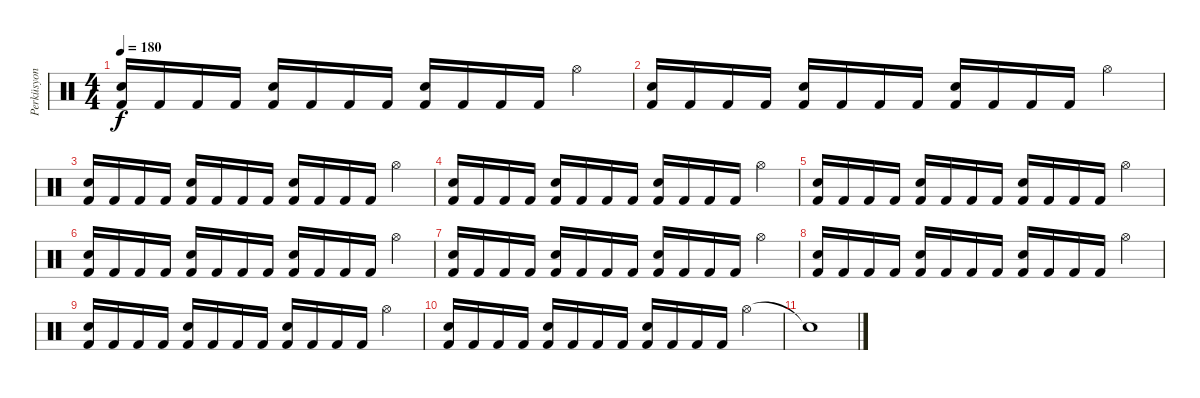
\track ("Perküsyon" "Perküsyon") {instrument percussion}
\staff {score}
\articulation defaults
\ts (4 4)
\tempo 180
\clef neutral
\ks c
("Kick (hit) 2" "Electric Snare (hit)").16{dy f} "Kick (hit) 2".16 "Kick (hit) 2".16 "Kick (hit) 2".16 ("Kick (hit) 2" "Electric Snare (hit)").16 "Kick (hit) 2".16 "Kick (hit) 2".16 "Kick (hit) 2".16 ("Kick (hit) 2" "Electric Snare (hit)").16 "Kick (hit) 2".16 "Kick (hit) 2".16 "Kick (hit) 2".16 "Hi-Hat (open)".4 |
("Kick (hit) 2" "Electric Snare (hit)").16 "Kick (hit) 2".16 "Kick (hit) 2".16 "Kick (hit) 2".16 ("Kick (hit) 2" "Electric Snare (hit)").16 "Kick (hit) 2".16 "Kick (hit) 2".16 "Kick (hit) 2".16 ("Kick (hit) 2" "Electric Snare (hit)").16 "Kick (hit) 2".16 "Kick (hit) 2".16 "Kick (hit) 2".16 "Hi-Hat (open)".4 |
("Kick (hit) 2" "Electric Snare (hit)").16 "Kick (hit) 2".16 "Kick (hit) 2".16 "Kick (hit) 2".16 ("Kick (hit) 2" "Electric Snare (hit)").16 "Kick (hit) 2".16 "Kick (hit) 2".16 "Kick (hit) 2".16 ("Kick (hit) 2" "Electric Snare (hit)").16 "Kick (hit) 2".16 "Kick (hit) 2".16 "Kick (hit) 2".16 "Hi-Hat (open)".4 |
("Kick (hit) 2" "Electric Snare (hit)").16 "Kick (hit) 2".16 "Kick (hit) 2".16 "Kick (hit) 2".16 ("Kick (hit) 2" "Electric Snare (hit)").16 "Kick (hit) 2".16 "Kick (hit) 2".16 "Kick (hit) 2".16 ("Kick (hit) 2" "Electric Snare (hit)").16 "Kick (hit) 2".16 "Kick (hit) 2".16 "Kick (hit) 2".16 "Hi-Hat (open)".4 |
("Kick (hit) 2" "Electric Snare (hit)").16 "Kick (hit) 2".16 "Kick (hit) 2".16 "Kick (hit) 2".16 ("Kick (hit) 2" "Electric Snare (hit)").16 "Kick (hit) 2".16 "Kick (hit) 2".16 "Kick (hit) 2".16 ("Kick (hit) 2" "Electric Snare (hit)").16 "Kick (hit) 2".16 "Kick (hit) 2".16 "Kick (hit) 2".16 "Hi-Hat (open)".4 |
("Kick (hit) 2" "Electric Snare (hit)").16 "Kick (hit) 2".16 "Kick (hit) 2".16 "Kick (hit) 2".16 ("Kick (hit) 2" "Electric Snare (hit)").16 "Kick (hit) 2".16 "Kick (hit) 2".16 "Kick (hit) 2".16 ("Kick (hit) 2" "Electric Snare (hit)").16 "Kick (hit) 2".16 "Kick (hit) 2".16 "Kick (hit) 2".16 "Hi-Hat (open)".4 |
("Kick (hit) 2" "Electric Snare (hit)").16 "Kick (hit) 2".16 "Kick (hit) 2".16 "Kick (hit) 2".16 ("Kick (hit) 2" "Electric Snare (hit)").16 "Kick (hit) 2".16 "Kick (hit) 2".16 "Kick (hit) 2".16 ("Kick (hit) 2" "Electric Snare (hit)").16 "Kick (hit) 2".16 "Kick (hit) 2".16 "Kick (hit) 2".16 "Hi-Hat (open)".4 |
("Kick (hit) 2" "Electric Snare (hit)").16 "Kick (hit) 2".16 "Kick (hit) 2".16 "Kick (hit) 2".16 ("Kick (hit) 2" "Electric Snare (hit)").16 "Kick (hit) 2".16 "Kick (hit) 2".16 "Kick (hit) 2".16 ("Kick (hit) 2" "Electric Snare (hit)").16 "Kick (hit) 2".16 "Kick (hit) 2".16 "Kick (hit) 2".16 "Hi-Hat (open)".4 |
("Kick (hit) 2" "Electric Snare (hit)").16 "Kick (hit) 2".16 "Kick (hit) 2".16 "Kick (hit) 2".16 ("Kick (hit) 2" "Electric Snare (hit)").16 "Kick (hit) 2".16 "Kick (hit) 2".16 "Kick (hit) 2".16 ("Kick (hit) 2" "Electric Snare (hit)").16 "Kick (hit) 2".16 "Kick (hit) 2".16 "Kick (hit) 2".16 "Hi-Hat (open)".4 |
("Kick (hit) 2" "Electric Snare (hit)").16 "Kick (hit) 2".16 "Kick (hit) 2".16 "Kick (hit) 2".16 ("Kick (hit) 2" "Electric Snare (hit)").16 "Kick (hit) 2".16 "Kick (hit) 2".16 "Kick (hit) 2".16 ("Kick (hit) 2" "Electric Snare (hit)").16 "Kick (hit) 2".16 "Kick (hit) 2".16 "Kick (hit) 2".16 "Hi-Hat (open)".4 |
"Snare (hit)"{t}.1
